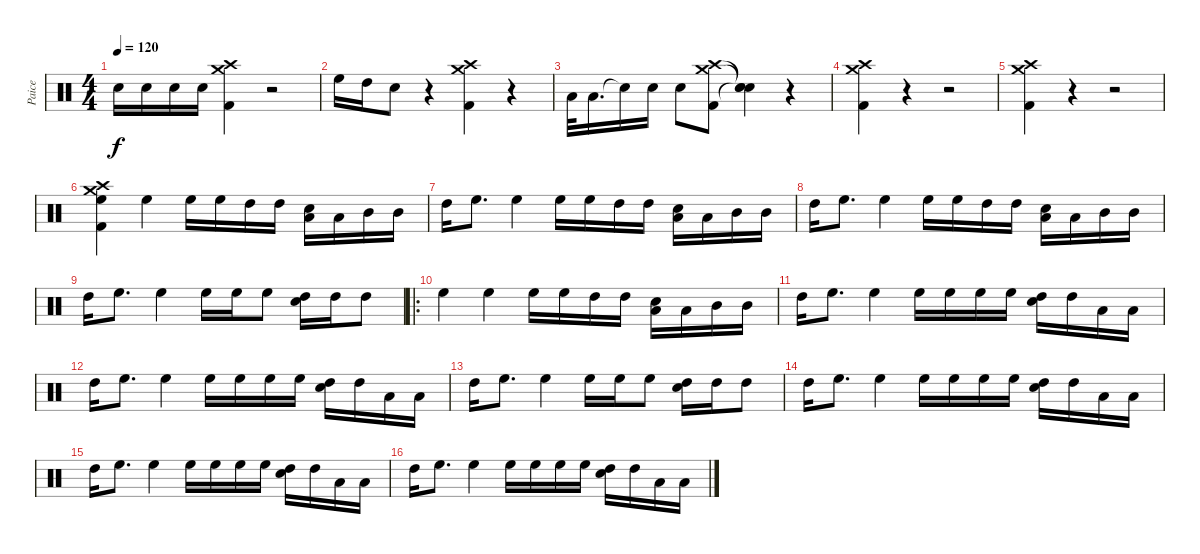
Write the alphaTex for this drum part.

\track ("Paice" "Paice") {instrument percussion}
\staff {score}
\articulation defaults
\ts (4 4)
\tempo 120
\clef neutral
\ks c "Electric Snare (hit)".16{dy f} "Electric Snare (hit)".16 "Electric Snare (hit)".16 "Electric Snare (hit)".16
("Crash high (hit)" "Crash medium (hit)" "Kick (hit) 2").4 r.2 |
"High Floor Tom (hit)".16 "High Tom (hit)".16 "Electric Snare (hit)".8 r.4 ("Crash high (hit)" "Crash medium (hit)" "Kick (hit) 2").4 r.4 |
"Low Tom (hit)".32 "Low Tom (hit)".16{d} "Snare (hit)"{t}.16 "Electric Snare (hit)".16 "Electric Snare (hit)".8 ("Crash high (hit)" "Crash medium (hit)" "Kick (hit) 2").8 ("Snare (hit)"{t} "Snare (hit)"{t} "Snare (hit)"{t}).4 r.4 |
("Crash high (hit)" "Crash medium (hit)" "Kick (hit) 2").4 r.4 r.2 |
("Crash high (hit)" "Crash medium (hit)" "Kick (hit) 2").4 r.4 r.2 |
("Crash high (hit)" "Crash medium (hit)" "High Floor Tom (hit)" "Kick (hit) 2").4 "High Floor Tom (hit)".4 "High Floor Tom (hit)".16 "High Floor Tom (hit)".16 "High Tom (hit)".16 "High Tom (hit)".16 ("Low Tom (hit)" "Hand Clap (hit)").16 "Low Tom (hit)".16 "Mid Tom (hit)".16 "Mid Tom (hit)".16 |
"High Tom (hit)".16 "High Floor Tom (hit)".8{d} "High Floor Tom (hit)".4 "High Floor Tom (hit)".16 "High Floor Tom (hit)".16 "High Tom (hit)".16 "High Tom (hit)".16 ("Low Tom (hit)" "Hand Clap (hit)").16 "Low Tom (hit)".16 "Mid Tom (hit)".16 "Mid Tom (hit)".16 |
"High Tom (hit)".16 "High Floor Tom (hit)".8{d} "High Floor Tom (hit)".4 "High Floor Tom (hit)".16 "High Floor Tom (hit)".16 "High Tom (hit)".16 "High Tom (hit)".16 ("Low Tom (hit)" "Hand Clap (hit)").16 "Low Tom (hit)".16 "Mid Tom (hit)".16 "Mid Tom (hit)".16 |
"High Tom (hit)".16 "High Floor Tom (hit)".8{d} "High Floor Tom (hit)".4 "High Floor Tom (hit)".16 "High Floor Tom (hit)".16 "High Floor Tom (hit)".8 ("High Tom (hit)" "Hand Clap (hit)").16 "High Tom (hit)".16 "High Tom (hit)".8 |
\ro "High Floor Tom (hit)".4 "High Floor Tom (hit)".4 "High Floor Tom (hit)".16 "High Floor Tom (hit)".16 "High Tom (hit)".16 "High Tom (hit)".16
("Low Tom (hit)" "Hand Clap (hit)").16 "Low Tom (hit)".16 "Mid Tom (hit)".16 "Mid Tom (hit)".16 |
"High Tom (hit)".16 "High Floor Tom (hit)".8{d} "High Floor Tom (hit)".4 "High Floor Tom (hit)".16 "High Floor Tom (hit)".16 "High Floor Tom (hit)".16 "High Floor Tom (hit)".16 ("High Tom (hit)" "Hand Clap (hit)").16 "High Tom (hit)".16 "Low Tom (hit)".16 "Low Tom (hit)".16 |
"High Tom (hit)".16 "High Floor Tom (hit)".8{d} "High Floor Tom (hit)".4 "High Floor Tom (hit)".16 "High Floor Tom (hit)".16 "High Floor Tom (hit)".16 "High Floor Tom (hit)".16 ("High Tom (hit)" "Hand Clap (hit)").16 "High Tom (hit)".16 "Low Tom (hit)".16 "Low Tom (hit)".16 |
"High Tom (hit)".16 "High Floor Tom (hit)".8{d} "High Floor Tom (hit)".4 "High Floor Tom (hit)".16 "High Floor Tom (hit)".16 "High Floor Tom (hit)".8 ("High Tom (hit)" "Hand Clap (hit)").16 "High Tom (hit)".16 "High Tom (hit)".8 |
"High Tom (hit)".16 "High Floor Tom (hit)".8{d} "High Floor Tom (hit)".4 "High Floor Tom (hit)".16 "High Floor Tom (hit)".16 "High Floor Tom (hit)".16 "High Floor Tom (hit)".16 ("High Tom (hit)" "Hand Clap (hit)").16 "High Tom (hit)".16 "Low Tom (hit)".16 "Low Tom (hit)".16 |
"High Tom (hit)".16 "High Floor Tom (hit)".8{d} "High Floor Tom (hit)".4 "High Floor Tom (hit)".16 "High Floor Tom (hit)".16 "High Floor Tom (hit)".16 "High Floor Tom (hit)".16 ("High Tom (hit)" "Hand Clap (hit)").16 "High Tom (hit)".16 "Low Tom (hit)".16 "Low Tom (hit)".16 |
"High Tom (hit)".16 "High Floor Tom (hit)".8{d} "High Floor Tom (hit)".4 "High Floor Tom (hit)".16 "High Floor Tom (hit)".16 "High Floor Tom (hit)".16 "High Floor Tom (hit)".16 ("High Tom (hit)" "Hand Clap (hit)").16 "High Tom (hit)".16 "Low Tom (hit)".16 "Low Tom (hit)".16
